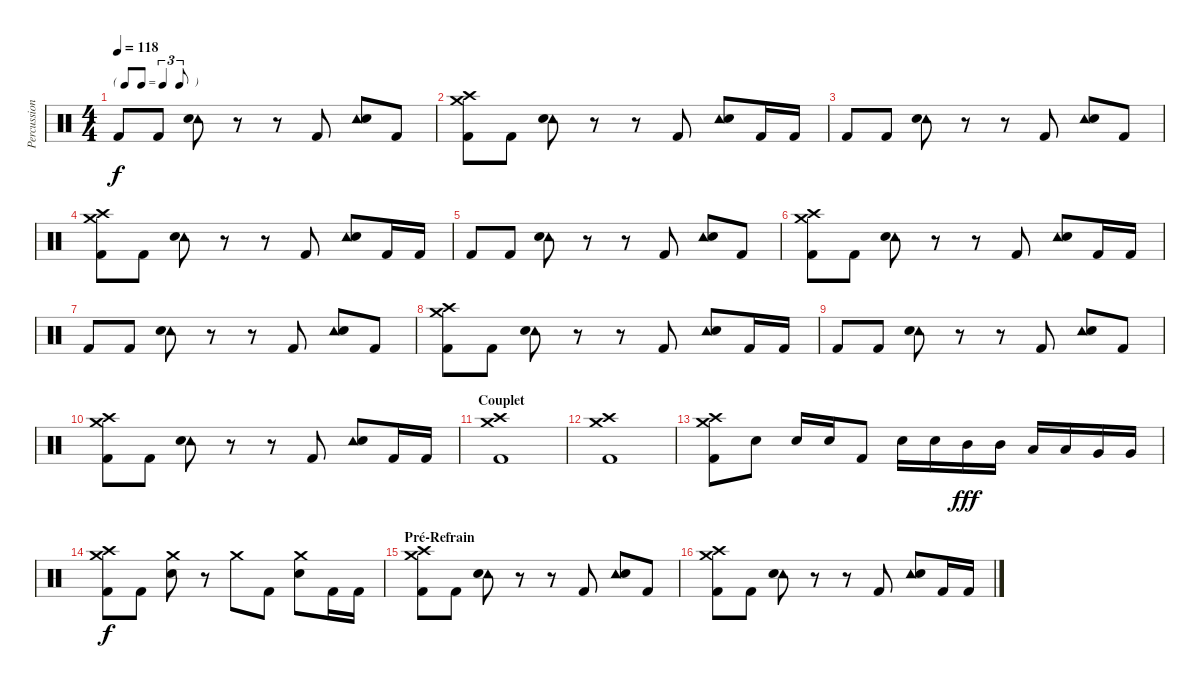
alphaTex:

\track ("Percussions" "Percussion") {instrument percussion}
\staff {score}
\articulation defaults
\ts (4 4)
\tf triplet8th
\tempo 118
\clef neutral
\ks c "Kick (hit) 2".8{dy f} "Kick (hit) 2".8
("Tambourine (hit)" "Snare (hit) 2").8 r.8 r.8 "Kick (hit) 2".8 ("Tambourine (hit)" "Snare (hit) 2").8 "Kick (hit) 2".8 |
("Crash medium (hit)" "Crash high (hit)" "Kick (hit) 2").8 "Kick (hit) 2".8 ("Tambourine (hit)" "Snare (hit) 2").8 r.8 r.8 "Kick (hit) 2".8 ("Tambourine (hit)" "Snare (hit) 2").8 "Kick (hit) 2".16 "Kick (hit) 2".16 |
"Kick (hit) 2".8 "Kick (hit) 2".8 ("Tambourine (hit)" "Snare (hit) 2").8 r.8 r.8 "Kick (hit) 2".8 ("Tambourine (hit)" "Snare (hit) 2").8 "Kick (hit) 2".8 |
("Crash medium (hit)" "Crash high (hit)" "Kick (hit) 2").8 "Kick (hit) 2".8 ("Tambourine (hit)" "Snare (hit) 2").8 r.8 r.8 "Kick (hit) 2".8 ("Tambourine (hit)" "Snare (hit) 2").8 "Kick (hit) 2".16 "Kick (hit) 2".16 |
"Kick (hit) 2".8 "Kick (hit) 2".8 ("Tambourine (hit)" "Snare (hit) 2").8 r.8 r.8 "Kick (hit) 2".8 ("Tambourine (hit)" "Snare (hit) 2").8 "Kick (hit) 2".8 |
("Crash medium (hit)" "Crash high (hit)" "Kick (hit) 2").8 "Kick (hit) 2".8 ("Tambourine (hit)" "Snare (hit) 2").8 r.8 r.8 "Kick (hit) 2".8 ("Tambourine (hit)" "Snare (hit) 2").8 "Kick (hit) 2".16 "Kick (hit) 2".16 |
"Kick (hit) 2".8 "Kick (hit) 2".8 ("Tambourine (hit)" "Snare (hit) 2").8 r.8 r.8 "Kick (hit) 2".8 ("Tambourine (hit)" "Snare (hit) 2").8 "Kick (hit) 2".8 |
("Crash medium (hit)" "Crash high (hit)" "Kick (hit) 2").8 "Kick (hit) 2".8 ("Tambourine (hit)" "Snare (hit) 2").8 r.8 r.8 "Kick (hit) 2".8 ("Tambourine (hit)" "Snare (hit) 2").8 "Kick (hit) 2".16 "Kick (hit) 2".16 |
"Kick (hit) 2".8 "Kick (hit) 2".8 ("Tambourine (hit)" "Snare (hit) 2").8 r.8 r.8 "Kick (hit) 2".8 ("Tambourine (hit)" "Snare (hit) 2").8 "Kick (hit) 2".8 |
("Crash medium (hit)" "Crash high (hit)" "Kick (hit) 2").8 "Kick (hit) 2".8 ("Tambourine (hit)" "Snare (hit) 2").8 r.8 r.8 "Kick (hit) 2".8 ("Tambourine (hit)" "Snare (hit) 2").8 "Kick (hit) 2".16 "Kick (hit) 2".16 |
\section ("" "Couplet")
("Crash medium (hit)" "Crash high (hit)" "Kick (hit) 2").1 |
("Crash medium (hit)" "Crash high (hit)" "Kick (hit) 2").1 |
("Crash medium (hit)" "Crash high (hit)" "Kick (hit) 2").8 "Snare (hit) 2".8 "Snare (hit) 2".16 "Snare (hit) 2".16 "Kick (hit) 2".8 "Snare (hit) 2".16 "Snare (hit) 2".16 "Mid Tom (hit)".16{dy fff} "Mid Tom (hit)".16 "Low Tom (hit)".16 "Low Tom (hit)".16 "Very Low Tom (hit)".16 "Very Low Tom (hit)".16 |
("Crash medium (hit)" "Crash high (hit)" "Kick (hit) 2").8{dy f} "Kick (hit) 2".8 ("Crash medium (hit)" "Snare (hit) 2").8 r.8 "Crash medium (hit)".8 "Kick (hit) 2".8 ("Crash medium (hit)" "Snare (hit) 2").8 "Kick (hit) 2".16 "Kick (hit) 2".16 |
\section ("" "Pré-Refrain")
("Crash medium (hit)" "Crash high (hit)" "Kick (hit) 2").8 "Kick (hit) 2".8 ("Tambourine (hit)" "Snare (hit) 2").8 r.8 r.8 "Kick (hit) 2".8 ("Tambourine (hit)" "Snare (hit) 2").8 "Kick (hit) 2".8 |
("Crash medium (hit)" "Crash high (hit)" "Kick (hit) 2").8 "Kick (hit) 2".8 ("Tambourine (hit)" "Snare (hit) 2").8 r.8 r.8 "Kick (hit) 2".8 ("Tambourine (hit)" "Snare (hit) 2").8 "Kick (hit) 2".16 "Kick (hit) 2".16
